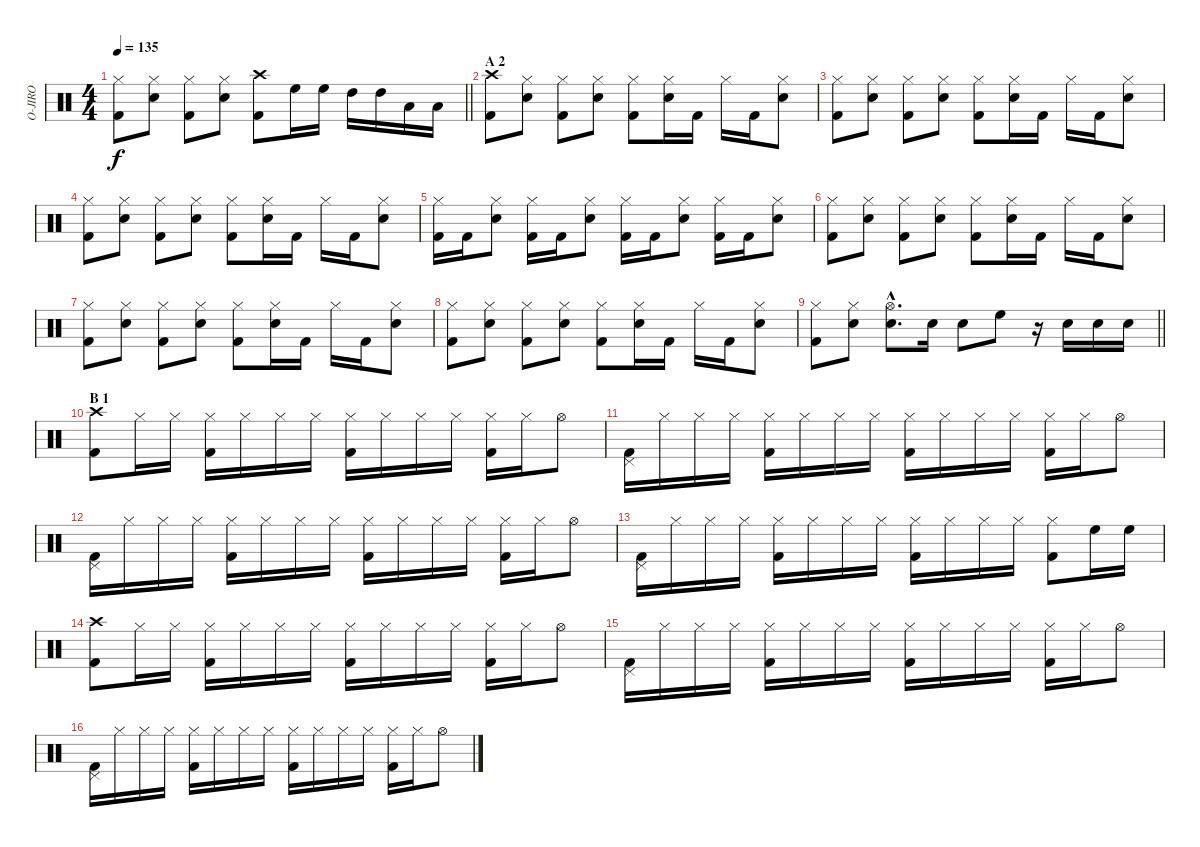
\track ("O-JIRO" "O-JIRO") {instrument percussion}
\staff {score}
\articulation defaults
\ts (4 4)
\tempo 135
\clef neutral
\barLineRight lightlight
\ks c
("Hi-Hat (closed)" "Kick (hit) 2").8{dy f} ("Hi-Hat (closed)" "Snare (hit) 2").8 ("Hi-Hat (closed)" "Kick (hit) 2").8 ("Hi-Hat (closed)" "Snare (hit) 2").8 ("Crash high (hit)" "Kick (hit) 2").8 "High Floor Tom (hit)".16 "High Floor Tom (hit)".16 "High Tom (hit)".16 "High Tom (hit)".16 "Low Tom (hit)".16 "Low Tom (hit)".16 |
\section ("" "A 2")
("Crash high (hit)" "Kick (hit) 2").8 ("Hi-Hat (closed)" "Snare (hit) 2").8 ("Hi-Hat (closed)" "Kick (hit) 2").8 ("Hi-Hat (closed)" "Snare (hit) 2").8 ("Hi-Hat (closed)" "Kick (hit) 2").8 ("Hi-Hat (closed)" "Snare (hit) 2").16 "Kick (hit) 2".16 "Hi-Hat (closed)".16 "Kick (hit) 2".16 ("Hi-Hat (closed)" "Snare (hit) 2").8 |
("Hi-Hat (closed)" "Kick (hit) 2").8 ("Hi-Hat (closed)" "Snare (hit) 2").8 ("Hi-Hat (closed)" "Kick (hit) 2").8 ("Hi-Hat (closed)" "Snare (hit) 2").8 ("Hi-Hat (closed)" "Kick (hit) 2").8 ("Hi-Hat (closed)" "Snare (hit) 2").16 "Kick (hit) 2".16 "Hi-Hat (closed)".16 "Kick (hit) 2".16 ("Hi-Hat (closed)" "Snare (hit) 2").8 |
("Hi-Hat (closed)" "Kick (hit) 2").8 ("Hi-Hat (closed)" "Snare (hit) 2").8 ("Hi-Hat (closed)" "Kick (hit) 2").8 ("Hi-Hat (closed)" "Snare (hit) 2").8 ("Hi-Hat (closed)" "Kick (hit) 2").8 ("Hi-Hat (closed)" "Snare (hit) 2").16 "Kick (hit) 2".16 "Hi-Hat (closed)".16 "Kick (hit) 2".16 ("Hi-Hat (closed)" "Snare (hit) 2").8 |
("Hi-Hat (closed)" "Kick (hit) 2").16 "Kick (hit) 2".16 ("Hi-Hat (closed)" "Snare (hit) 2").8 ("Hi-Hat (closed)" "Kick (hit) 2").16 "Kick (hit) 2".16 ("Hi-Hat (closed)" "Snare (hit) 2").8 ("Hi-Hat (closed)" "Kick (hit) 2").16 "Kick (hit) 2".16 ("Hi-Hat (closed)" "Snare (hit) 2").8 ("Hi-Hat (closed)" "Kick (hit) 2").16 "Kick (hit) 2".16 ("Hi-Hat (closed)" "Snare (hit) 2").8 |
("Hi-Hat (closed)" "Kick (hit) 2").8 ("Hi-Hat (closed)" "Snare (hit) 2").8 ("Hi-Hat (closed)" "Kick (hit) 2").8 ("Hi-Hat (closed)" "Snare (hit) 2").8 ("Hi-Hat (closed)" "Kick (hit) 2").8 ("Hi-Hat (closed)" "Snare (hit) 2").16 "Kick (hit) 2".16 "Hi-Hat (closed)".16 "Kick (hit) 2".16 ("Hi-Hat (closed)" "Snare (hit) 2").8 |
("Hi-Hat (closed)" "Kick (hit) 2").8 ("Hi-Hat (closed)" "Snare (hit) 2").8 ("Hi-Hat (closed)" "Kick (hit) 2").8 ("Hi-Hat (closed)" "Snare (hit) 2").8 ("Hi-Hat (closed)" "Kick (hit) 2").8 ("Hi-Hat (closed)" "Snare (hit) 2").16 "Kick (hit) 2".16 "Hi-Hat (closed)".16 "Kick (hit) 2".16 ("Hi-Hat (closed)" "Snare (hit) 2").8 |
("Hi-Hat (closed)" "Kick (hit) 2").8 ("Hi-Hat (closed)" "Snare (hit) 2").8 ("Hi-Hat (closed)" "Kick (hit) 2").8 ("Hi-Hat (closed)" "Snare (hit) 2").8 ("Hi-Hat (closed)" "Kick (hit) 2").8 ("Hi-Hat (closed)" "Snare (hit) 2").16 "Kick (hit) 2".16 "Hi-Hat (closed)".16 "Kick (hit) 2".16 ("Hi-Hat (closed)" "Snare (hit) 2").8 |
\barLineRight lightlight
("Hi-Hat (closed)" "Kick (hit) 2").8 ("Hi-Hat (closed)" "Snare (hit) 2").8 ("Hi-Hat (open)"{hac} "Snare (hit) 2"{hac}).8{d} "Snare (hit) 2".16 "Snare (hit) 2".8 "High Floor Tom (hit)".8 r.16 "Snare (hit) 2".16 "Snare (hit) 2".16 "Snare (hit) 2".16 |
\section ("" "B 1")
("Crash high (hit)" "Kick (hit) 2").8 "Hi-Hat (closed)".16 "Hi-Hat (closed)".16 ("Hi-Hat (closed)" "Kick (hit) 2").16 "Hi-Hat (closed)".16 "Hi-Hat (closed)".16 "Hi-Hat (closed)".16 ("Hi-Hat (closed)" "Kick (hit) 2").16 "Hi-Hat (closed)".16 "Hi-Hat (closed)".16 "Hi-Hat (closed)".16 ("Hi-Hat (closed)" "Kick (hit) 2").16 "Hi-Hat (closed)".16 "Hi-Hat (open)".8 |
("Pedal Hi-Hat (hit)" "Kick (hit) 2").16 "Hi-Hat (closed)".16 "Hi-Hat (closed)".16 "Hi-Hat (closed)".16 ("Hi-Hat (closed)" "Kick (hit) 2").16 "Hi-Hat (closed)".16 "Hi-Hat (closed)".16 "Hi-Hat (closed)".16 ("Hi-Hat (closed)" "Kick (hit) 2").16 "Hi-Hat (closed)".16 "Hi-Hat (closed)".16 "Hi-Hat (closed)".16 ("Hi-Hat (closed)" "Kick (hit) 2").16 "Hi-Hat (closed)".16 "Hi-Hat (open)".8 |
("Pedal Hi-Hat (hit)" "Kick (hit) 2").16 "Hi-Hat (closed)".16 "Hi-Hat (closed)".16 "Hi-Hat (closed)".16 ("Hi-Hat (closed)" "Kick (hit) 2").16 "Hi-Hat (closed)".16 "Hi-Hat (closed)".16 "Hi-Hat (closed)".16 ("Hi-Hat (closed)" "Kick (hit) 2").16 "Hi-Hat (closed)".16 "Hi-Hat (closed)".16 "Hi-Hat (closed)".16 ("Hi-Hat (closed)" "Kick (hit) 2").16 "Hi-Hat (closed)".16 "Hi-Hat (open)".8 |
("Pedal Hi-Hat (hit)" "Kick (hit) 2").16 "Hi-Hat (closed)".16 "Hi-Hat (closed)".16 "Hi-Hat (closed)".16 ("Hi-Hat (closed)" "Kick (hit) 2").16 "Hi-Hat (closed)".16 "Hi-Hat (closed)".16 "Hi-Hat (closed)".16 ("Hi-Hat (closed)" "Kick (hit) 2").16 "Hi-Hat (closed)".16 "Hi-Hat (closed)".16 "Hi-Hat (closed)".16 ("Hi-Hat (closed)" "Kick (hit) 2").8 "High Floor Tom (hit)".16 "High Floor Tom (hit)".16 |
("Crash high (hit)" "Kick (hit) 2").8 "Hi-Hat (closed)".16 "Hi-Hat (closed)".16 ("Hi-Hat (closed)" "Kick (hit) 2").16 "Hi-Hat (closed)".16 "Hi-Hat (closed)".16 "Hi-Hat (closed)".16 ("Hi-Hat (closed)" "Kick (hit) 2").16 "Hi-Hat (closed)".16 "Hi-Hat (closed)".16 "Hi-Hat (closed)".16 ("Hi-Hat (closed)" "Kick (hit) 2").16 "Hi-Hat (closed)".16 "Hi-Hat (open)".8 |
("Pedal Hi-Hat (hit)" "Kick (hit) 2").16 "Hi-Hat (closed)".16 "Hi-Hat (closed)".16 "Hi-Hat (closed)".16 ("Hi-Hat (closed)" "Kick (hit) 2").16 "Hi-Hat (closed)".16 "Hi-Hat (closed)".16 "Hi-Hat (closed)".16 ("Hi-Hat (closed)" "Kick (hit) 2").16 "Hi-Hat (closed)".16 "Hi-Hat (closed)".16 "Hi-Hat (closed)".16 ("Hi-Hat (closed)" "Kick (hit) 2").16 "Hi-Hat (closed)".16 "Hi-Hat (open)".8 |
("Pedal Hi-Hat (hit)" "Kick (hit) 2").16 "Hi-Hat (closed)".16 "Hi-Hat (closed)".16 "Hi-Hat (closed)".16 ("Hi-Hat (closed)" "Kick (hit) 2").16 "Hi-Hat (closed)".16 "Hi-Hat (closed)".16 "Hi-Hat (closed)".16 ("Hi-Hat (closed)" "Kick (hit) 2").16 "Hi-Hat (closed)".16 "Hi-Hat (closed)".16 "Hi-Hat (closed)".16 ("Hi-Hat (closed)" "Kick (hit) 2").16 "Hi-Hat (closed)".16 "Hi-Hat (open)".8
